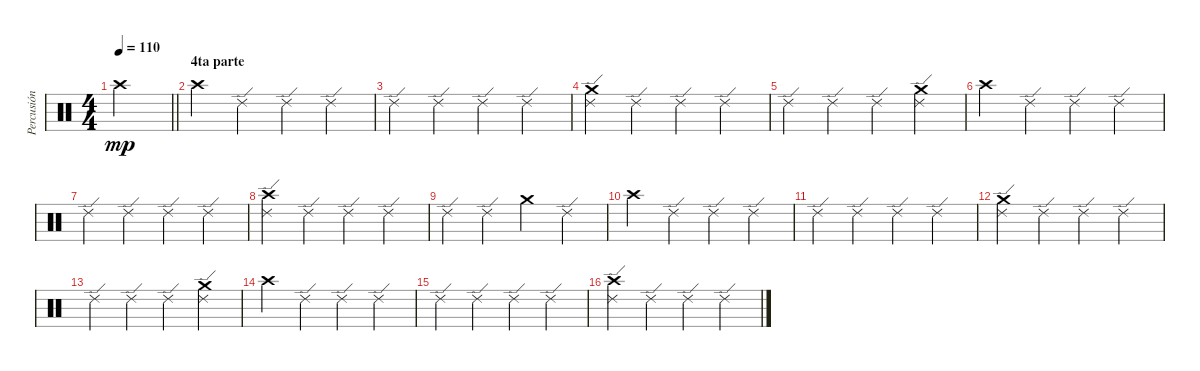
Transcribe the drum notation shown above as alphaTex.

\track ("Percusión" "Percusión") {instrument percussion}
\staff {score}
\articulation defaults
\ts (4 4)
\tempo 110
\clef neutral
\barLineRight lightlight
\ks c "Crash high (hit)".2{dy mp}
|
\section ("" "4ta parte")
"Crash high (hit)".4 "Ride (edge) 2".4 "Ride (edge) 2".4 "Ride (edge) 2".4 |
"Ride (edge) 2".4 "Ride (edge) 2".4 "Ride (edge) 2".4 "Ride (edge) 2".4 |
("Ride (edge) 2" "Crash medium (hit)").4 "Ride (edge) 2".4 "Ride (edge) 2".4 "Ride (edge) 2".4 |
"Ride (edge) 2".4 "Ride (edge) 2".4 "Ride (edge) 2".4 ("Ride (edge) 2" "Crash medium (hit)").4 |
"Crash high (hit)".4 "Ride (edge) 2".4 "Ride (edge) 2".4 "Ride (edge) 2".4 |
"Ride (edge) 2".4 "Ride (edge) 2".4 "Ride (edge) 2".4 "Ride (edge) 2".4 |
("Ride (edge) 2" "Crash high (hit)").4 "Ride (edge) 2".4 "Ride (edge) 2".4 "Ride (edge) 2".4 |
"Ride (edge) 2".4 "Ride (edge) 2".4 "Crash medium (hit)".4 "Ride (edge) 2".4 |
"Crash high (hit)".4 "Ride (edge) 2".4 "Ride (edge) 2".4 "Ride (edge) 2".4 |
"Ride (edge) 2".4 "Ride (edge) 2".4 "Ride (edge) 2".4 "Ride (edge) 2".4 |
("Ride (edge) 2" "Crash medium (hit)").4 "Ride (edge) 2".4 "Ride (edge) 2".4 "Ride (edge) 2".4 |
"Ride (edge) 2".4 "Ride (edge) 2".4 "Ride (edge) 2".4 ("Ride (edge) 2" "Crash medium (hit)").4 |
"Crash high (hit)".4 "Ride (edge) 2".4 "Ride (edge) 2".4 "Ride (edge) 2".4 |
"Ride (edge) 2".4 "Ride (edge) 2".4 "Ride (edge) 2".4 "Ride (edge) 2".4 |
("Ride (edge) 2" "Crash high (hit)").4 "Ride (edge) 2".4 "Ride (edge) 2".4 "Ride (edge) 2".4
